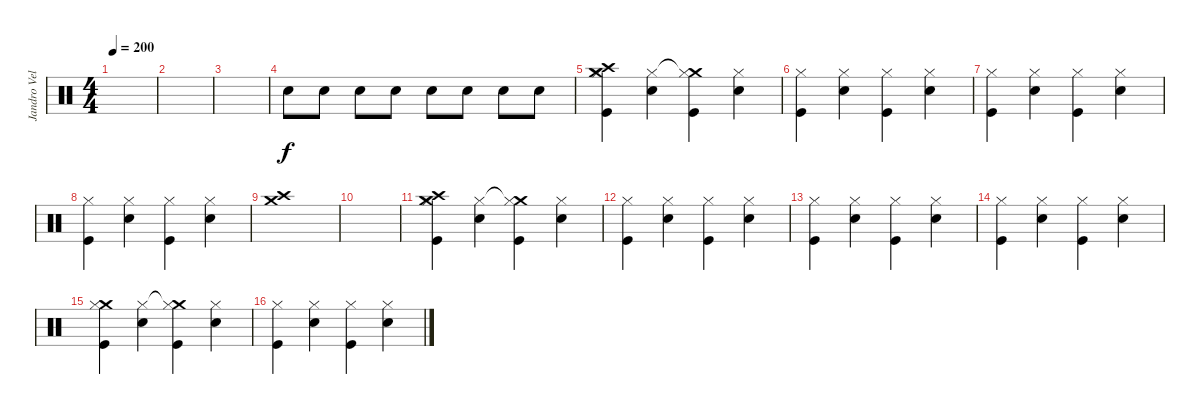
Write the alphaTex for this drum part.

\track ("Jandro Velázquez" "Jandro Vel") {instrument percussion}
\staff {score}
\articulation defaults
\ts (4 4)
\tempo 200
\clef neutral
\ks c
|
|
|
"Electric Snare (hit)".8 "Electric Snare (hit)".8 "Electric Snare (hit)".8 "Electric Snare (hit)".8 "Electric Snare (hit)".8 "Electric Snare (hit)".8 "Electric Snare (hit)".8 "Electric Snare (hit)".8 |
("Crash high (hit)" "Crash medium (hit)" "Hi-Hat (closed)" "Kick (hit)").4 ("Hi-Hat (closed)" "Snare (hit) 2").4 ("Crash medium (hit)"{t} "Hi-Hat (closed)" "Kick (hit)").4 ("Hi-Hat (closed)" "Snare (hit) 2").4 |
("Hi-Hat (closed)" "Kick (hit)").4 ("Hi-Hat (closed)" "Snare (hit) 2").4 ("Hi-Hat (closed)" "Kick (hit)").4 ("Hi-Hat (closed)" "Snare (hit) 2").4 |
("Hi-Hat (closed)" "Kick (hit)").4 ("Hi-Hat (closed)" "Snare (hit) 2").4 ("Hi-Hat (closed)" "Kick (hit)").4 ("Hi-Hat (closed)" "Snare (hit) 2").4 |
("Hi-Hat (closed)" "Kick (hit)").4 ("Hi-Hat (closed)" "Snare (hit) 2").4 ("Hi-Hat (closed)" "Kick (hit)").4 ("Hi-Hat (closed)" "Snare (hit) 2").4 |
("Crash high (hit)" "Crash medium (hit)").1 |
|
("Crash high (hit)" "Crash medium (hit)" "Hi-Hat (closed)" "Kick (hit)").4 ("Hi-Hat (closed)" "Snare (hit) 2").4 ("Crash medium (hit)"{t} "Hi-Hat (closed)" "Kick (hit)").4 ("Hi-Hat (closed)" "Snare (hit) 2").4 |
("Hi-Hat (closed)" "Kick (hit)").4 ("Hi-Hat (closed)" "Snare (hit) 2").4 ("Hi-Hat (closed)" "Kick (hit)").4 ("Hi-Hat (closed)" "Snare (hit) 2").4 |
("Hi-Hat (closed)" "Kick (hit)").4 ("Hi-Hat (closed)" "Snare (hit) 2").4 ("Hi-Hat (closed)" "Kick (hit)").4 ("Hi-Hat (closed)" "Snare (hit) 2").4 |
("Hi-Hat (closed)" "Kick (hit)").4 ("Hi-Hat (closed)" "Snare (hit) 2").4 ("Hi-Hat (closed)" "Kick (hit)").4 ("Hi-Hat (closed)" "Snare (hit) 2").4 |
("Crash medium (hit)" "Hi-Hat (closed)" "Kick (hit)").4 ("Hi-Hat (closed)" "Snare (hit) 2").4 ("Crash medium (hit)"{t} "Hi-Hat (closed)" "Kick (hit)").4 ("Hi-Hat (closed)" "Snare (hit) 2").4 |
("Hi-Hat (closed)" "Kick (hit)").4 ("Hi-Hat (closed)" "Snare (hit) 2").4 ("Hi-Hat (closed)" "Kick (hit)").4 ("Hi-Hat (closed)" "Snare (hit) 2").4
